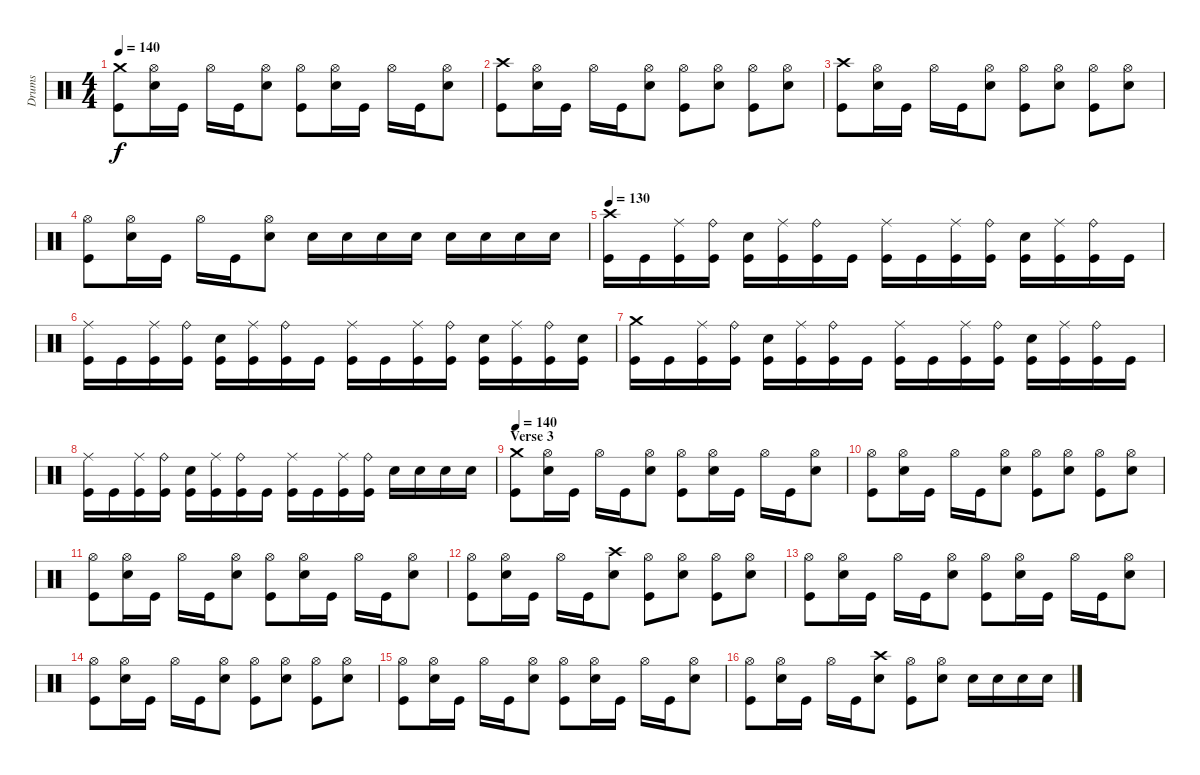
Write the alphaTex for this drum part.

\track ("Drums" "Drums") {instrument percussion}
\staff {score}
\articulation defaults
\ts (4 4)
\tempo 140
\clef neutral
\ks c
("Crash medium (hit)" "Kick (hit)").8{dy f} ("Hi-Hat (open)" "Snare (hit) 2").16 "Kick (hit)".16 "Hi-Hat (open)".16 "Kick (hit)".16 ("Hi-Hat (open)" "Snare (hit) 2").8 ("Hi-Hat (open)" "Kick (hit)").8 ("Hi-Hat (open)" "Snare (hit) 2").16 "Kick (hit)".16 "Hi-Hat (open)".16 "Kick (hit)".16 ("Hi-Hat (open)" "Snare (hit) 2").8 |
("Crash high (hit)" "Kick (hit)").8 ("Hi-Hat (open)" "Snare (hit) 2").16 "Kick (hit)".16 "Hi-Hat (open)".16 "Kick (hit)".16 ("Hi-Hat (open)" "Snare (hit) 2").8 ("Hi-Hat (open)" "Kick (hit)").8 ("Hi-Hat (open)" "Snare (hit) 2").8 ("Hi-Hat (open)" "Kick (hit)").8 ("Hi-Hat (open)" "Snare (hit) 2").8 |
("Crash high (hit)" "Kick (hit)").8 ("Hi-Hat (open)" "Snare (hit) 2").16 "Kick (hit)".16 "Hi-Hat (open)".16 "Kick (hit)".16 ("Hi-Hat (open)" "Snare (hit) 2").8 ("Hi-Hat (open)" "Kick (hit)").8 ("Hi-Hat (open)" "Snare (hit) 2").8 ("Hi-Hat (open)" "Kick (hit)").8 ("Hi-Hat (open)" "Snare (hit) 2").8 |
("Hi-Hat (open)" "Kick (hit)").8 ("Hi-Hat (open)" "Snare (hit) 2").16 "Kick (hit)".16 "Hi-Hat (open)".16 "Kick (hit)".16 ("Hi-Hat (open)" "Snare (hit) 2").8 "Snare (hit) 2".16 "Snare (hit) 2".16 "Snare (hit) 2".16 "Snare (hit) 2".16 "Snare (hit) 2".16 "Snare (hit) 2".16 "Snare (hit) 2".16 "Snare (hit) 2".16 |
\tempo 130
("Crash high (hit)" "Kick (hit)").16 "Kick (hit)".16 ("Ride (middle)" "Kick (hit)").16 ("Ride (bell)" "Kick (hit)").16 ("Snare (hit) 2" "Kick (hit)").16 ("Ride (middle)" "Kick (hit)").16 ("Ride (bell)" "Kick (hit)").16 "Kick (hit)".16 ("Ride (middle)" "Kick (hit)").16 "Kick (hit)".16 ("Ride (middle)" "Kick (hit)").16 ("Ride (bell)" "Kick (hit)").16 ("Snare (hit) 2" "Kick (hit)").16 ("Ride (middle)" "Kick (hit)").16 ("Ride (bell)" "Kick (hit)").16 "Kick (hit)".16 |
("Ride (middle)" "Kick (hit)").16 "Kick (hit)".16 ("Ride (middle)" "Kick (hit)").16 ("Ride (bell)" "Kick (hit)").16 ("Snare (hit) 2" "Kick (hit)").16 ("Ride (middle)" "Kick (hit)").16 ("Ride (bell)" "Kick (hit)").16 "Kick (hit)".16 ("Ride (middle)" "Kick (hit)").16 "Kick (hit)".16 ("Ride (middle)" "Kick (hit)").16 ("Ride (bell)" "Kick (hit)").16 ("Snare (hit) 2" "Kick (hit)").16 ("Ride (middle)" "Kick (hit)").16 ("Ride (bell)" "Kick (hit)").16 ("Snare (hit) 2" "Kick (hit)").16 |
("Crash medium (hit)" "Kick (hit)").16 "Kick (hit)".16 ("Ride (middle)" "Kick (hit)").16 ("Ride (bell)" "Kick (hit)").16 ("Snare (hit) 2" "Kick (hit)").16 ("Ride (middle)" "Kick (hit)").16 ("Ride (bell)" "Kick (hit)").16 "Kick (hit)".16 ("Ride (middle)" "Kick (hit)").16 "Kick (hit)".16 ("Ride (middle)" "Kick (hit)").16 ("Ride (bell)" "Kick (hit)").16 ("Snare (hit) 2" "Kick (hit)").16 ("Ride (middle)" "Kick (hit)").16 ("Ride (bell)" "Kick (hit)").16 "Kick (hit)".16 |
("Ride (middle)" "Kick (hit)").16 "Kick (hit)".16 ("Ride (middle)" "Kick (hit)").16 ("Ride (bell)" "Kick (hit)").16 ("Snare (hit) 2" "Kick (hit)").16 ("Ride (middle)" "Kick (hit)").16 ("Ride (bell)" "Kick (hit)").16 "Kick (hit)".16 ("Ride (middle)" "Kick (hit)").16 "Kick (hit)".16 ("Ride (middle)" "Kick (hit)").16 ("Ride (bell)" "Kick (hit)").16 "Snare (hit) 2".16 "Snare (hit) 2".16 "Snare (hit) 2".16 "Snare (hit) 2".16 |
\section ("" "Verse 3")
\tempo 140
("Crash medium (hit)" "Kick (hit)").8 ("Hi-Hat (open)" "Snare (hit) 2").16 "Kick (hit)".16 "Hi-Hat (open)".16 "Kick (hit)".16 ("Hi-Hat (open)" "Snare (hit) 2").8 ("Hi-Hat (open)" "Kick (hit)").8 ("Hi-Hat (open)" "Snare (hit) 2").16 "Kick (hit)".16 "Hi-Hat (open)".16 "Kick (hit)".16 ("Hi-Hat (open)" "Snare (hit) 2").8 |
("Hi-Hat (open)" "Kick (hit)").8 ("Hi-Hat (open)" "Snare (hit) 2").16 "Kick (hit)".16 "Hi-Hat (open)".16 "Kick (hit)".16 ("Hi-Hat (open)" "Snare (hit) 2").8 ("Hi-Hat (open)" "Kick (hit)").8 ("Hi-Hat (open)" "Snare (hit) 2").8 ("Hi-Hat (open)" "Kick (hit)").8 ("Hi-Hat (open)" "Snare (hit) 2").8 |
("Hi-Hat (open)" "Kick (hit)").8 ("Hi-Hat (open)" "Snare (hit) 2").16 "Kick (hit)".16 "Hi-Hat (open)".16 "Kick (hit)".16 ("Hi-Hat (open)" "Snare (hit) 2").8 ("Hi-Hat (open)" "Kick (hit)").8 ("Hi-Hat (open)" "Snare (hit) 2").16 "Kick (hit)".16 "Hi-Hat (open)".16 "Kick (hit)".16 ("Hi-Hat (open)" "Snare (hit) 2").8 |
("Hi-Hat (open)" "Kick (hit)").8 ("Hi-Hat (open)" "Snare (hit) 2").16 "Kick (hit)".16 "Hi-Hat (open)".16 "Kick (hit)".16 ("Crash high (hit)" "Snare (hit) 2").8 ("Hi-Hat (open)" "Kick (hit)").8 ("Hi-Hat (open)" "Snare (hit) 2").8 ("Hi-Hat (open)" "Kick (hit)").8 ("Hi-Hat (open)" "Snare (hit) 2").8 |
("Hi-Hat (open)" "Kick (hit)").8 ("Hi-Hat (open)" "Snare (hit) 2").16 "Kick (hit)".16 "Hi-Hat (open)".16 "Kick (hit)".16 ("Hi-Hat (open)" "Snare (hit) 2").8 ("Hi-Hat (open)" "Kick (hit)").8 ("Hi-Hat (open)" "Snare (hit) 2").16 "Kick (hit)".16 "Hi-Hat (open)".16 "Kick (hit)".16 ("Hi-Hat (open)" "Snare (hit) 2").8 |
("Hi-Hat (open)" "Kick (hit)").8 ("Hi-Hat (open)" "Snare (hit) 2").16 "Kick (hit)".16 "Hi-Hat (open)".16 "Kick (hit)".16 ("Hi-Hat (open)" "Snare (hit) 2").8 ("Hi-Hat (open)" "Kick (hit)").8 ("Hi-Hat (open)" "Snare (hit) 2").8 ("Hi-Hat (open)" "Kick (hit)").8 ("Hi-Hat (open)" "Snare (hit) 2").8 |
("Hi-Hat (open)" "Kick (hit)").8 ("Hi-Hat (open)" "Snare (hit) 2").16 "Kick (hit)".16 "Hi-Hat (open)".16 "Kick (hit)".16 ("Hi-Hat (open)" "Snare (hit) 2").8 ("Hi-Hat (open)" "Kick (hit)").8 ("Hi-Hat (open)" "Snare (hit) 2").16 "Kick (hit)".16 "Hi-Hat (open)".16 "Kick (hit)".16 ("Hi-Hat (open)" "Snare (hit) 2").8 |
("Hi-Hat (open)" "Kick (hit)").8 ("Hi-Hat (open)" "Snare (hit) 2").16 "Kick (hit)".16 "Hi-Hat (open)".16 "Kick (hit)".16 ("Crash high (hit)" "Snare (hit) 2").8 ("Hi-Hat (open)" "Kick (hit)").8 ("Hi-Hat (open)" "Snare (hit) 2").8 "Snare (hit) 2".16 "Snare (hit) 2".16 "Snare (hit) 2".16 "Snare (hit) 2".16
